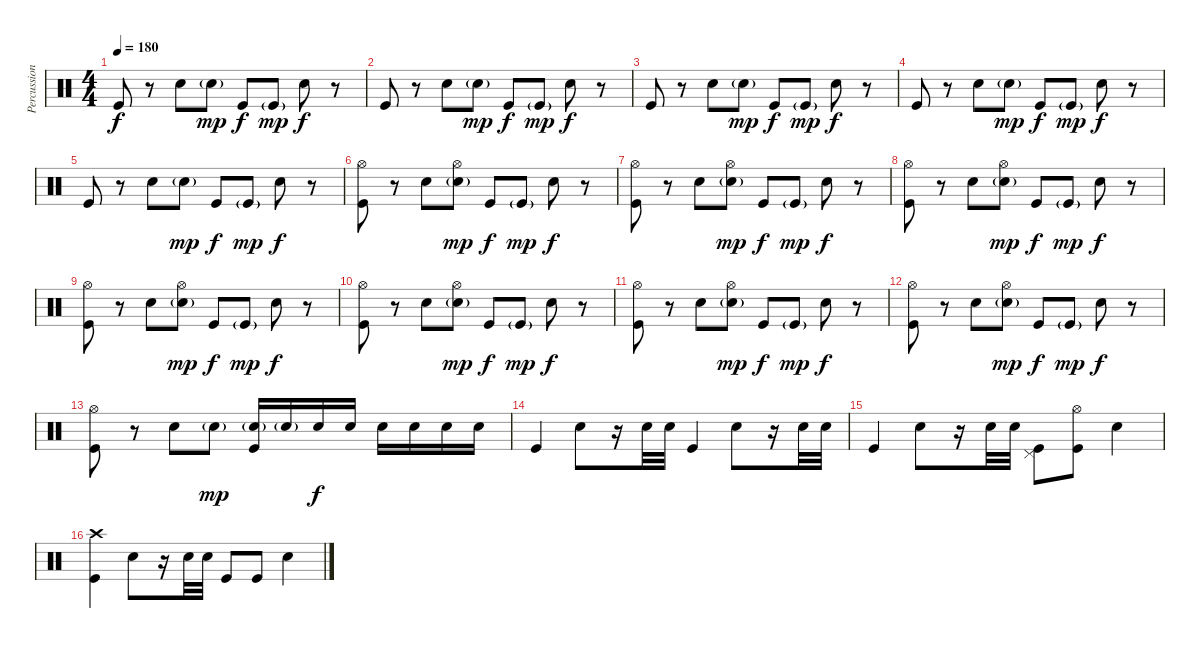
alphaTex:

\track ("Percussion" "Percussion") {instrument percussion}
\staff {score}
\articulation defaults
\ts (4 4)
\tempo 180
\clef neutral
\ks c "Kick (hit)".8{dy f}
r.8 "Snare (hit) 2".8 "Snare (hit) 2"{g}.8{dy mp} "Kick (hit)".8{dy f} "Kick (hit)"{g}.8{dy mp} "Snare (hit) 2".8{dy f} r.8 |
"Kick (hit)".8 r.8 "Snare (hit) 2".8 "Snare (hit) 2"{g}.8{dy mp} "Kick (hit)".8{dy f} "Kick (hit)"{g}.8{dy mp} "Snare (hit) 2".8{dy f} r.8 |
"Kick (hit)".8 r.8 "Snare (hit) 2".8 "Snare (hit) 2"{g}.8{dy mp} "Kick (hit)".8{dy f} "Kick (hit)"{g}.8{dy mp} "Snare (hit) 2".8{dy f} r.8 |
"Kick (hit)".8 r.8 "Snare (hit) 2".8 "Snare (hit) 2"{g}.8{dy mp} "Kick (hit)".8{dy f} "Kick (hit)"{g}.8{dy mp} "Snare (hit) 2".8{dy f} r.8 |
"Kick (hit)".8 r.8 "Snare (hit) 2".8 "Snare (hit) 2"{g}.8{dy mp} "Kick (hit)".8{dy f} "Kick (hit)"{g}.8{dy mp} "Snare (hit) 2".8{dy f} r.8 |
("Hi-Hat (open)" "Kick (hit)").8 r.8 "Snare (hit) 2".8 ("Hi-Hat (open)" "Snare (hit) 2"{g}).8{dy mp} "Kick (hit)".8{dy f} "Kick (hit)"{g}.8{dy mp} "Snare (hit) 2".8{dy f} r.8 |
("Hi-Hat (open)" "Kick (hit)").8 r.8 "Snare (hit) 2".8 ("Hi-Hat (open)" "Snare (hit) 2"{g}).8{dy mp} "Kick (hit)".8{dy f} "Kick (hit)"{g}.8{dy mp} "Snare (hit) 2".8{dy f} r.8 |
("Hi-Hat (open)" "Kick (hit)").8 r.8 "Snare (hit) 2".8 ("Hi-Hat (open)" "Snare (hit) 2"{g}).8{dy mp} "Kick (hit)".8{dy f} "Kick (hit)"{g}.8{dy mp} "Snare (hit) 2".8{dy f} r.8 |
("Hi-Hat (open)" "Kick (hit)").8 r.8 "Snare (hit) 2".8 ("Hi-Hat (open)" "Snare (hit) 2"{g}).8{dy mp} "Kick (hit)".8{dy f} "Kick (hit)"{g}.8{dy mp} "Snare (hit) 2".8{dy f} r.8 |
("Hi-Hat (open)" "Kick (hit)").8 r.8 "Snare (hit) 2".8 ("Hi-Hat (open)" "Snare (hit) 2"{g}).8{dy mp} "Kick (hit)".8{dy f} "Kick (hit)"{g}.8{dy mp} "Snare (hit) 2".8{dy f} r.8 |
("Hi-Hat (open)" "Kick (hit)").8 r.8 "Snare (hit) 2".8 ("Hi-Hat (open)" "Snare (hit) 2"{g}).8{dy mp} "Kick (hit)".8{dy f} "Kick (hit)"{g}.8{dy mp} "Snare (hit) 2".8{dy f} r.8 |
("Hi-Hat (open)" "Kick (hit)").8 r.8 "Snare (hit) 2".8 ("Hi-Hat (open)" "Snare (hit) 2"{g}).8{dy mp} "Kick (hit)".8{dy f} "Kick (hit)"{g}.8{dy mp} "Snare (hit) 2".8{dy f} r.8 |
("Hi-Hat (open)" "Kick (hit)").8 r.8 "Snare (hit) 2".8 "Snare (hit) 2"{g}.8{dy mp} ("Snare (hit) 2"{g} "Kick (hit)").16 "Snare (hit) 2"{g}.16 "Snare (hit) 2".16{dy f} "Snare (hit) 2".16 "Snare (hit) 2".16 "Snare (hit) 2".16 "Snare (hit) 2".16 "Snare (hit) 2".16 |
"Kick (hit)".4 "Snare (hit) 2".8 r.16 "Snare (hit) 2".32 "Snare (hit) 2".32 "Kick (hit)".4 "Snare (hit) 2".8 r.16 "Snare (hit) 2".32 "Snare (hit) 2".32 |
"Kick (hit)".4 "Snare (hit) 2".8 r.16 "Snare (hit) 2".32 "Snare (hit) 2".32 ("Kick (hit)" "Pedal Hi-Hat (hit)").8 ("Hi-Hat (open)" "Kick (hit)").8 "Snare (hit) 2".4 |
("Crash high (hit)" "Kick (hit)").4 "Snare (hit) 2".8 r.16 "Snare (hit) 2".32 "Snare (hit) 2".32 "Kick (hit)".8 "Kick (hit)".8 "Snare (hit) 2".4
